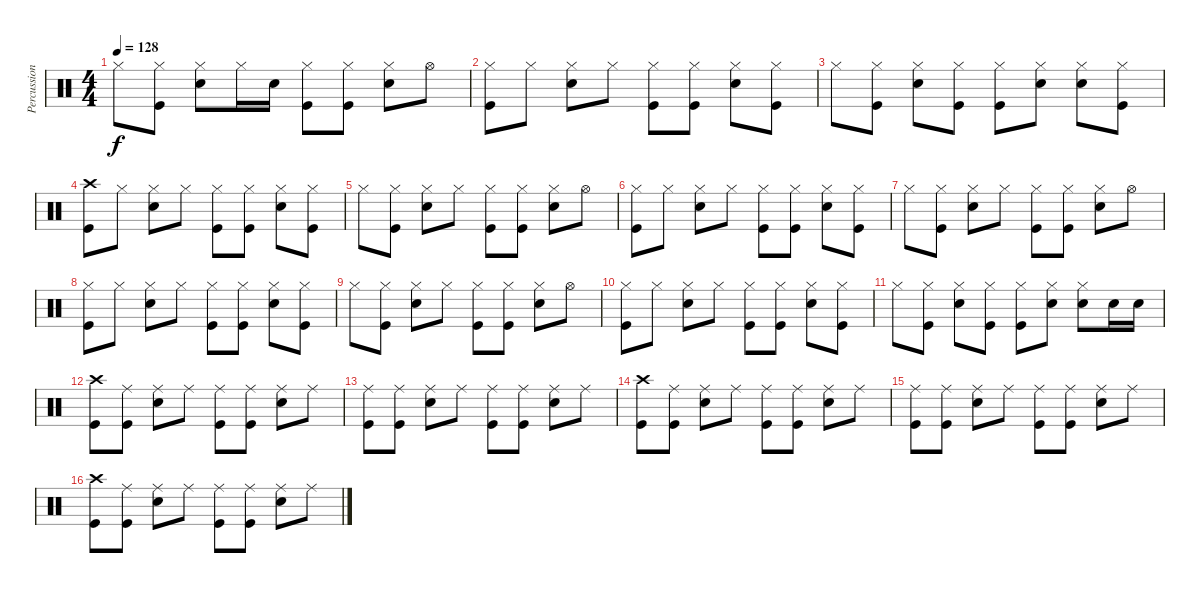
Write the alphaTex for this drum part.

\track ("Percussion" "Percussion") {instrument percussion}
\staff {score}
\articulation defaults
\ts (4 4)
\tempo 128
\clef neutral
\ks c "Hi-Hat (closed)".8{dy f}
("Hi-Hat (closed)" "Kick (hit)").8 ("Hi-Hat (closed)" "Snare (hit) 2").8 "Hi-Hat (closed)".16 "Snare (hit) 2".16 ("Hi-Hat (closed)" "Kick (hit)").8 ("Hi-Hat (closed)" "Kick (hit)").8 ("Hi-Hat (closed)" "Snare (hit) 2").8 "Hi-Hat (open)".8 |
("Hi-Hat (closed)" "Kick (hit)").8 "Hi-Hat (closed)".8 ("Hi-Hat (closed)" "Snare (hit) 2").8 "Hi-Hat (closed)".8 ("Hi-Hat (closed)" "Kick (hit)").8 ("Hi-Hat (closed)" "Kick (hit)").8 ("Hi-Hat (closed)" "Snare (hit) 2").8 ("Hi-Hat (closed)" "Kick (hit)").8 |
"Hi-Hat (closed)".8 ("Hi-Hat (closed)" "Kick (hit)").8 ("Hi-Hat (closed)" "Snare (hit) 2").8 ("Hi-Hat (closed)" "Kick (hit)").8 ("Hi-Hat (closed)" "Kick (hit)").8 ("Hi-Hat (closed)" "Snare (hit) 2").8 ("Hi-Hat (closed)" "Snare (hit) 2").8 ("Hi-Hat (closed)" "Kick (hit)").8 |
("Crash high (hit)" "Kick (hit)").8 "Hi-Hat (closed)".8 ("Hi-Hat (closed)" "Snare (hit) 2").8 "Hi-Hat (closed)".8 ("Hi-Hat (closed)" "Kick (hit)").8 ("Hi-Hat (closed)" "Kick (hit)").8 ("Hi-Hat (closed)" "Snare (hit) 2").8 ("Hi-Hat (closed)" "Kick (hit)").8 |
"Hi-Hat (closed)".8 ("Hi-Hat (closed)" "Kick (hit)").8 ("Hi-Hat (closed)" "Snare (hit) 2").8 "Hi-Hat (closed)".8 ("Hi-Hat (closed)" "Kick (hit)").8 ("Hi-Hat (closed)" "Kick (hit)").8 ("Hi-Hat (closed)" "Snare (hit) 2").8 "Hi-Hat (open)".8 |
("Hi-Hat (closed)" "Kick (hit)").8 "Hi-Hat (closed)".8 ("Hi-Hat (closed)" "Snare (hit) 2").8 "Hi-Hat (closed)".8 ("Hi-Hat (closed)" "Kick (hit)").8 ("Hi-Hat (closed)" "Kick (hit)").8 ("Hi-Hat (closed)" "Snare (hit) 2").8 ("Hi-Hat (closed)" "Kick (hit)").8 |
"Hi-Hat (closed)".8 ("Hi-Hat (closed)" "Kick (hit)").8 ("Hi-Hat (closed)" "Snare (hit) 2").8 "Hi-Hat (closed)".8 ("Hi-Hat (closed)" "Kick (hit)").8 ("Hi-Hat (closed)" "Kick (hit)").8 ("Hi-Hat (closed)" "Snare (hit) 2").8 "Hi-Hat (open)".8 |
("Hi-Hat (closed)" "Kick (hit)").8 "Hi-Hat (closed)".8 ("Hi-Hat (closed)" "Snare (hit) 2").8 "Hi-Hat (closed)".8 ("Hi-Hat (closed)" "Kick (hit)").8 ("Hi-Hat (closed)" "Kick (hit)").8 ("Hi-Hat (closed)" "Snare (hit) 2").8 ("Hi-Hat (closed)" "Kick (hit)").8 |
"Hi-Hat (closed)".8 ("Hi-Hat (closed)" "Kick (hit)").8 ("Hi-Hat (closed)" "Snare (hit) 2").8 "Hi-Hat (closed)".8 ("Hi-Hat (closed)" "Kick (hit)").8 ("Hi-Hat (closed)" "Kick (hit)").8 ("Hi-Hat (closed)" "Snare (hit) 2").8 "Hi-Hat (open)".8 |
("Hi-Hat (closed)" "Kick (hit)").8 "Hi-Hat (closed)".8 ("Hi-Hat (closed)" "Snare (hit) 2").8 "Hi-Hat (closed)".8 ("Hi-Hat (closed)" "Kick (hit)").8 ("Hi-Hat (closed)" "Kick (hit)").8 ("Hi-Hat (closed)" "Snare (hit) 2").8 ("Hi-Hat (closed)" "Kick (hit)").8 |
"Hi-Hat (closed)".8 ("Hi-Hat (closed)" "Kick (hit)").8 ("Hi-Hat (closed)" "Snare (hit) 2").8 ("Hi-Hat (closed)" "Kick (hit)").8 ("Hi-Hat (closed)" "Kick (hit)").8 ("Hi-Hat (closed)" "Snare (hit) 2").8 ("Hi-Hat (closed)" "Snare (hit) 2").8 "Snare (hit) 2".16 "Snare (hit) 2".16 |
("Crash high (hit)" "Kick (hit)").8 ("Ride (middle)" "Kick (hit)").8 ("Ride (middle)" "Snare (hit) 2").8 "Ride (middle)".8 ("Ride (middle)" "Kick (hit)").8 ("Ride (middle)" "Kick (hit)").8 ("Ride (middle)" "Snare (hit) 2").8 "Ride (middle)".8 |
("Ride (middle)" "Kick (hit)").8 ("Ride (middle)" "Kick (hit)").8 ("Ride (middle)" "Snare (hit) 2").8 "Ride (middle)".8 ("Ride (middle)" "Kick (hit)").8 ("Ride (middle)" "Kick (hit)").8 ("Ride (middle)" "Snare (hit) 2").8 "Ride (middle)".8 |
("Crash high (hit)" "Kick (hit)").8 ("Ride (middle)" "Kick (hit)").8 ("Ride (middle)" "Snare (hit) 2").8 "Ride (middle)".8 ("Ride (middle)" "Kick (hit)").8 ("Ride (middle)" "Kick (hit)").8 ("Ride (middle)" "Snare (hit) 2").8 "Ride (middle)".8 |
("Ride (middle)" "Kick (hit)").8 ("Ride (middle)" "Kick (hit)").8 ("Ride (middle)" "Snare (hit) 2").8 "Ride (middle)".8 ("Ride (middle)" "Kick (hit)").8 ("Ride (middle)" "Kick (hit)").8 ("Ride (middle)" "Snare (hit) 2").8 "Ride (middle)".8 |
("Crash high (hit)" "Kick (hit)").8 ("Ride (middle)" "Kick (hit)").8 ("Ride (middle)" "Snare (hit) 2").8 "Ride (middle)".8 ("Ride (middle)" "Kick (hit)").8 ("Ride (middle)" "Kick (hit)").8 ("Ride (middle)" "Snare (hit) 2").8 "Ride (middle)".8
